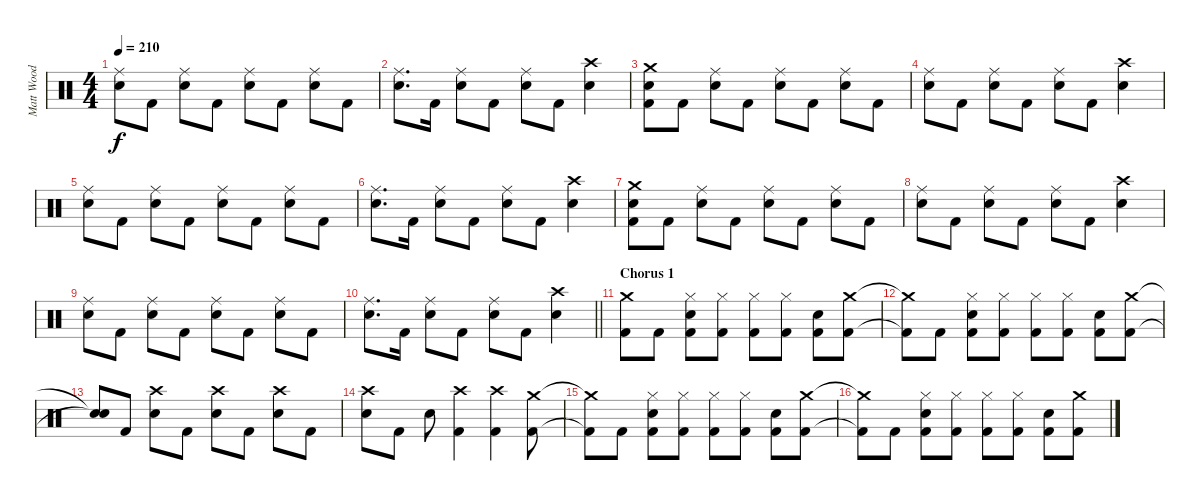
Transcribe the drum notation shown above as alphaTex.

\track ("Matt Wood" "Matt Wood") {instrument percussion}
\staff {score}
\articulation defaults
\ts (4 4)
\tempo 210
\clef neutral
\ks c
("Ride (middle)" "Snare (hit) 2").8{dy f} "Kick (hit) 2".8 ("Ride (middle)" "Snare (hit) 2").8 "Kick (hit) 2".8 ("Ride (middle)" "Snare (hit) 2").8 "Kick (hit) 2".8 ("Ride (middle)" "Snare (hit) 2").8 "Kick (hit) 2".8 |
("Ride (middle)" "Snare (hit) 2").8{d} "Kick (hit) 2".16 ("Ride (middle)" "Snare (hit) 2").8 "Kick (hit) 2".8 ("Ride (middle)" "Snare (hit) 2").8 "Kick (hit) 2".8 ("Crash high (hit)" "Snare (hit) 2").4 |
("Crash medium (hit)" "Snare (hit) 2" "Kick (hit) 2").8 "Kick (hit) 2".8 ("Ride (middle)" "Snare (hit) 2").8 "Kick (hit) 2".8 ("Ride (middle)" "Snare (hit) 2").8 "Kick (hit) 2".8 ("Ride (middle)" "Snare (hit) 2").8 "Kick (hit) 2".8 |
("Ride (middle)" "Snare (hit) 2").8 "Kick (hit) 2".8 ("Ride (middle)" "Snare (hit) 2").8 "Kick (hit) 2".8 ("Ride (middle)" "Snare (hit) 2").8 "Kick (hit) 2".8 ("Crash high (hit)" "Snare (hit) 2").4 |
("Ride (middle)" "Snare (hit) 2").8 "Kick (hit) 2".8 ("Ride (middle)" "Snare (hit) 2").8 "Kick (hit) 2".8 ("Ride (middle)" "Snare (hit) 2").8 "Kick (hit) 2".8 ("Ride (middle)" "Snare (hit) 2").8 "Kick (hit) 2".8 |
("Ride (middle)" "Snare (hit) 2").8{d} "Kick (hit) 2".16 ("Ride (middle)" "Snare (hit) 2").8 "Kick (hit) 2".8 ("Ride (middle)" "Snare (hit) 2").8 "Kick (hit) 2".8 ("Crash high (hit)" "Snare (hit) 2").4 |
("Crash medium (hit)" "Snare (hit) 2" "Kick (hit) 2").8 "Kick (hit) 2".8 ("Ride (middle)" "Snare (hit) 2").8 "Kick (hit) 2".8 ("Ride (middle)" "Snare (hit) 2").8 "Kick (hit) 2".8 ("Ride (middle)" "Snare (hit) 2").8 "Kick (hit) 2".8 |
("Ride (middle)" "Snare (hit) 2").8 "Kick (hit) 2".8 ("Ride (middle)" "Snare (hit) 2").8 "Kick (hit) 2".8 ("Ride (middle)" "Snare (hit) 2").8 "Kick (hit) 2".8 ("Crash high (hit)" "Snare (hit) 2").4 |
("Ride (middle)" "Snare (hit) 2").8 "Kick (hit) 2".8 ("Ride (middle)" "Snare (hit) 2").8 "Kick (hit) 2".8 ("Ride (middle)" "Snare (hit) 2").8 "Kick (hit) 2".8 ("Ride (middle)" "Snare (hit) 2").8 "Kick (hit) 2".8 |
\barLineRight lightlight
("Ride (middle)" "Snare (hit) 2").8{d} "Kick (hit) 2".16 ("Ride (middle)" "Snare (hit) 2").8 "Kick (hit) 2".8 ("Ride (middle)" "Snare (hit) 2").8 "Kick (hit) 2".8 ("Crash high (hit)" "Snare (hit) 2").4 |
\section ("" "Chorus 1")
("Crash medium (hit)" "Kick (hit) 2").8 "Kick (hit) 2".8 ("Hi-Hat (closed)" "Snare (hit) 2" "Kick (hit) 2").8 ("Hi-Hat (closed)" "Kick (hit) 2").8 ("Hi-Hat (closed)" "Kick (hit) 2").8 ("Hi-Hat (closed)" "Kick (hit) 2").8 ("Snare (hit) 2" "Kick (hit) 2").8 ("Crash medium (hit)" "Kick (hit) 2").8 |
("Crash medium (hit)"{t} "Kick (hit) 2"{t}).8 "Kick (hit) 2".8 ("Hi-Hat (closed)" "Snare (hit) 2" "Kick (hit) 2").8 ("Hi-Hat (closed)" "Kick (hit) 2").8 ("Hi-Hat (closed)" "Kick (hit) 2").8 ("Hi-Hat (closed)" "Kick (hit) 2").8 ("Snare (hit) 2" "Kick (hit) 2").8 ("Crash medium (hit)" "Kick (hit) 2").8 |
("Snare (hit)"{t} "Snare (hit)"{t}).8 "Kick (hit) 2".8 ("Crash high (hit)" "Snare (hit) 2").8 "Kick (hit) 2".8 ("Crash high (hit)" "Snare (hit) 2").8 "Kick (hit) 2".8 ("Crash high (hit)" "Snare (hit) 2").8 "Kick (hit) 2".8 |
("Crash high (hit)" "Snare (hit) 2").8 "Kick (hit) 2".8 "Snare (hit) 2".8 ("Crash high (hit)" "Kick (hit) 2").4 ("Crash high (hit)" "Kick (hit) 2").4 ("Crash medium (hit)" "Kick (hit) 2").8 |
("Crash medium (hit)"{t} "Kick (hit) 2"{t}).8 "Kick (hit) 2".8 ("Hi-Hat (closed)" "Snare (hit) 2" "Kick (hit) 2").8 ("Hi-Hat (closed)" "Kick (hit) 2").8 ("Hi-Hat (closed)" "Kick (hit) 2").8 ("Hi-Hat (closed)" "Kick (hit) 2").8 ("Snare (hit) 2" "Kick (hit) 2").8 ("Crash medium (hit)" "Kick (hit) 2").8 |
("Crash medium (hit)"{t} "Kick (hit) 2"{t}).8 "Kick (hit) 2".8 ("Hi-Hat (closed)" "Snare (hit) 2" "Kick (hit) 2").8 ("Hi-Hat (closed)" "Kick (hit) 2").8 ("Hi-Hat (closed)" "Kick (hit) 2").8 ("Hi-Hat (closed)" "Kick (hit) 2").8 ("Snare (hit) 2" "Kick (hit) 2").8 ("Crash medium (hit)" "Kick (hit) 2").8
